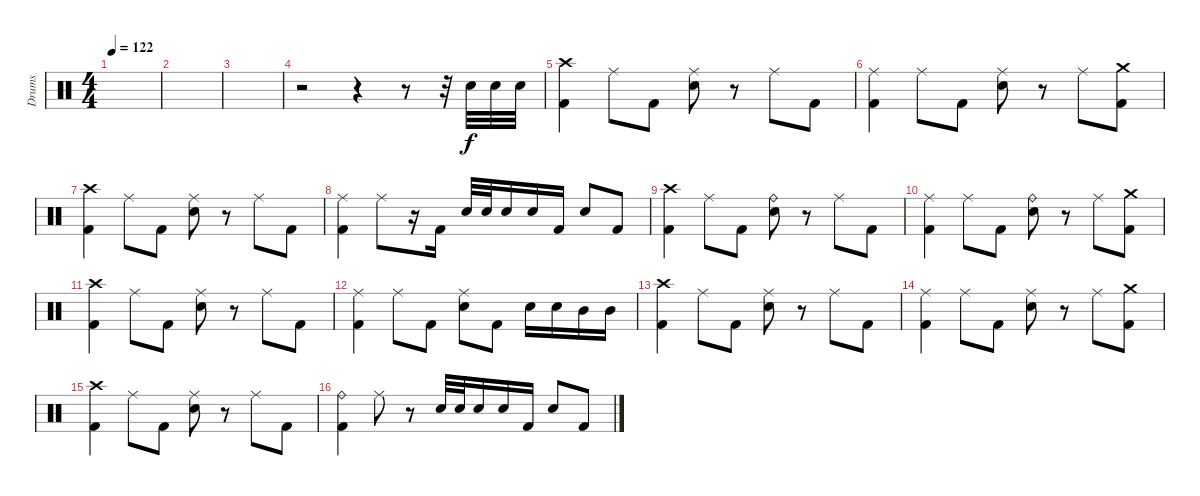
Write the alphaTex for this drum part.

\track ("Drums" "Drums") {instrument percussion}
\staff {score}
\articulation defaults
\ts (4 4)
\tempo 122
\clef neutral
\ks c
|
|
|
r.2 r.4 r.8 r.32 "Electric Snare (hit)".32 "Electric Snare (hit)".32 "Electric Snare (hit)".32 |
("Crash high (hit)" "Kick (hit) 2").4 "Ride (middle)".8 "Kick (hit) 2".8 ("Ride (middle)" "Electric Snare (hit)").8 r.8 "Ride (middle)".8 "Kick (hit) 2".8 |
("Ride (middle)" "Kick (hit) 2").4 "Ride (middle)".8 "Kick (hit) 2".8 ("Ride (middle)" "Electric Snare (hit)").8 r.8 "Ride (middle)".8 ("Crash medium (hit)" "Kick (hit) 2").8 |
("Crash high (hit)" "Kick (hit) 2").4 "Ride (middle)".8 "Kick (hit) 2".8 ("Ride (middle)" "Electric Snare (hit)").8 r.8 "Ride (middle)".8 "Kick (hit) 2".8 |
("Ride (middle)" "Kick (hit) 2").4 "Ride (middle)".8 r.16 "Kick (hit) 2".16 "Electric Snare (hit)".32 "Electric Snare (hit)".32 "Electric Snare (hit)".16 "Electric Snare (hit)".16 "Kick (hit) 2".16 "Electric Snare (hit)".8 "Kick (hit) 2".8 |
("Crash high (hit)" "Kick (hit) 2").4 "Ride (middle)".8 "Kick (hit) 2".8 ("Ride (bell)" "Electric Snare (hit)").8 r.8 "Ride (middle)".8 "Kick (hit) 2".8 |
("Ride (middle)" "Kick (hit) 2").4 "Ride (middle)".8 "Kick (hit) 2".8 ("Ride (bell)" "Electric Snare (hit)").8 r.8 "Ride (middle)".8 ("Crash medium (hit)" "Kick (hit) 2").8 |
("Crash high (hit)" "Kick (hit) 2").4 "Ride (middle)".8 "Kick (hit) 2".8 ("Ride (middle)" "Electric Snare (hit)").8 r.8 "Ride (middle)".8 "Kick (hit) 2".8 |
("Ride (middle)" "Kick (hit) 2").4 "Ride (middle)".8 "Kick (hit) 2".8 ("Ride (middle)" "Electric Snare (hit)").8 "Kick (hit) 2".8 "Electric Snare (hit)".16 "Electric Snare (hit)".16 "Mid Tom (hit)".16 "Mid Tom (hit)".16 |
("Crash high (hit)" "Kick (hit) 2").4 "Ride (middle)".8 "Kick (hit) 2".8 ("Ride (middle)" "Electric Snare (hit)").8 r.8 "Ride (middle)".8 "Kick (hit) 2".8 |
("Ride (middle)" "Kick (hit) 2").4 "Ride (middle)".8 "Kick (hit) 2".8 ("Ride (middle)" "Electric Snare (hit)").8 r.8 "Ride (middle)".8 ("Crash medium (hit)" "Kick (hit) 2").8 |
("Crash high (hit)" "Kick (hit) 2").4 "Ride (middle)".8 "Kick (hit) 2".8 ("Ride (middle)" "Electric Snare (hit)").8 r.8 "Ride (middle)".8 "Kick (hit) 2".8 |
("Ride (bell)" "Kick (hit) 2").4 "Ride (middle)".8 r.8 "Electric Snare (hit)".32 "Electric Snare (hit)".32 "Electric Snare (hit)".16 "Electric Snare (hit)".16 "Kick (hit) 2".16 "Electric Snare (hit)".8 "Kick (hit) 2".8
